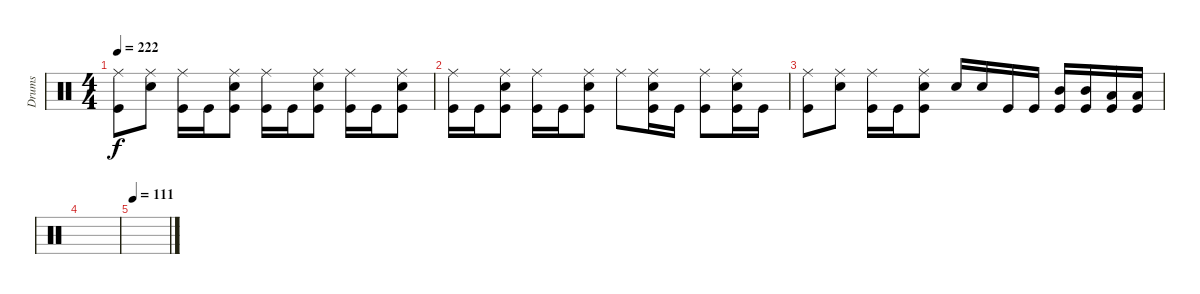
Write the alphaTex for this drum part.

\track ("Drums" "Drums") {instrument percussion}
\staff
\articulation defaults
\ts (4 4)
\tempo 222
\clef neutral
\ks c
("Ride (middle)" "Kick (hit)").8{dy f} ("Ride (middle)" "Electric Snare (hit)").8 ("Ride (middle)" "Kick (hit)").16 "Kick (hit)".16 ("Ride (middle)" "Electric Snare (hit)" "Kick (hit)").8 ("Ride (middle)" "Kick (hit)").16 "Kick (hit)".16 ("Ride (middle)" "Electric Snare (hit)" "Kick (hit)").8 ("Ride (middle)" "Kick (hit)").16 "Kick (hit)".16 ("Ride (middle)" "Electric Snare (hit)" "Kick (hit)").8 |
("Ride (middle)" "Kick (hit)").16 "Kick (hit)".16 ("Ride (middle)" "Electric Snare (hit)" "Kick (hit)").8 ("Ride (middle)" "Kick (hit)").16 "Kick (hit)".16 ("Ride (middle)" "Electric Snare (hit)" "Kick (hit)").8 "Ride (middle)".8 ("Ride (middle)" "Electric Snare (hit)" "Kick (hit)").16 "Kick (hit)".16 ("Ride (middle)" "Kick (hit)").8 ("Ride (middle)" "Electric Snare (hit)" "Kick (hit)").16 "Kick (hit)".16 |
("Ride (middle)" "Kick (hit)").8 ("Ride (middle)" "Electric Snare (hit)").8 ("Ride (middle)" "Kick (hit)").16 "Kick (hit)".16 ("Ride (middle)" "Electric Snare (hit)" "Kick (hit)").8 "Electric Snare (hit)".16 "Electric Snare (hit)".16 "Kick (hit)".16 "Kick (hit)".16 ("Mid Tom (hit)" "Kick (hit)").16 ("Mid Tom (hit)" "Kick (hit)").16 ("Low Tom (hit)" "Kick (hit)").16 ("Low Tom (hit)" "Kick (hit)").16 |
|
\tempo 111
